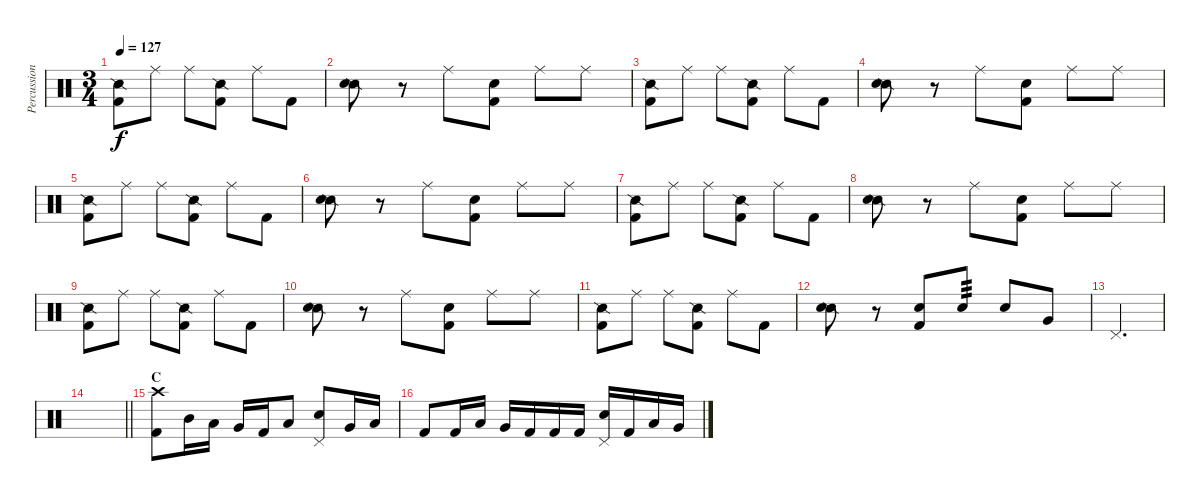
\track ("Percussion" "Percussion") {instrument percussion}
\staff {score}
\articulation defaults
\ts (3 4)
\tempo 127
\clef neutral
\ks c
("Snare (side stick) 2" "Kick (hit) 2").8{dy f} "Ride (middle)".8 "Ride (middle)".8 ("Snare (side stick) 2" "Kick (hit) 2").8 "Ride (middle)".8 "Kick (hit) 2".8 |
("Snare (side stick) 2" "Snare (hit) 2").8 r.8 "Ride (middle)".8 ("Snare (hit)" "Kick (hit) 2").8 "Ride (middle)".8 "Ride (middle)".8 |
("Snare (side stick) 2" "Kick (hit) 2").8 "Ride (middle)".8 "Ride (middle)".8 ("Snare (side stick) 2" "Kick (hit) 2").8 "Ride (middle)".8 "Kick (hit) 2".8 |
("Snare (side stick) 2" "Snare (hit) 2").8 r.8 "Ride (middle)".8 ("Snare (hit)" "Kick (hit) 2").8 "Ride (middle)".8 "Ride (middle)".8 |
("Snare (side stick) 2" "Kick (hit) 2").8 "Ride (middle)".8 "Ride (middle)".8 ("Snare (side stick) 2" "Kick (hit) 2").8 "Ride (middle)".8 "Kick (hit) 2".8 |
("Snare (side stick) 2" "Snare (hit) 2").8 r.8 "Ride (middle)".8 ("Snare (hit)" "Kick (hit) 2").8 "Ride (middle)".8 "Ride (middle)".8 |
("Snare (side stick) 2" "Kick (hit) 2").8 "Ride (middle)".8 "Ride (middle)".8 ("Snare (side stick) 2" "Kick (hit) 2").8 "Ride (middle)".8 "Kick (hit) 2".8 |
("Snare (side stick) 2" "Snare (hit) 2").8 r.8 "Ride (middle)".8 ("Snare (hit)" "Kick (hit) 2").8 "Ride (middle)".8 "Ride (middle)".8 |
("Snare (side stick) 2" "Kick (hit) 2").8 "Ride (middle)".8 "Ride (middle)".8 ("Snare (side stick) 2" "Kick (hit) 2").8 "Ride (middle)".8 "Kick (hit) 2".8 |
("Snare (side stick) 2" "Snare (hit) 2").8 r.8 "Ride (middle)".8 ("Snare (hit)" "Kick (hit) 2").8 "Ride (middle)".8 "Ride (middle)".8 |
("Snare (side stick) 2" "Kick (hit) 2").8 "Ride (middle)".8 "Ride (middle)".8 ("Snare (side stick) 2" "Kick (hit) 2").8 "Ride (middle)".8 "Kick (hit) 2".8 |
("Snare (side stick) 2" "Snare (hit) 2").8 r.8 ("Snare (hit)" "Kick (hit) 2").8 "Snare (hit) 2".8{tp 3} "Snare (hit) 2".8 "Very Low Tom (hit)".8 |
"Pedal Hi-Hat (hit)".2{d} |
\barLineRight lightlight
|
\section ("" "C")
("Crash high (hit)" "Kick (hit) 2").8 "Mid Tom (hit)".16 "Low Tom (hit)".16 "Very Low Tom (hit)".16 "Kick (hit) 2".16 "Low Tom (hit)".8 ("Pedal Hi-Hat (hit)" "Snare (hit) 2").8 "Very Low Tom (hit)".16 "Low Floor Tom (hit)".16 |
"Kick (hit) 2".8 "Kick (hit) 2".16 "Low Tom (hit)".16 "Very Low Tom (hit)".16 "Kick (hit) 2".16 "Kick (hit) 2".16 "Kick (hit) 2".16 ("Pedal Hi-Hat (hit)" "Snare (hit) 2").16 "Kick (hit) 2".16 "Low Tom (hit)".16 "Very Low Tom (hit)".16
